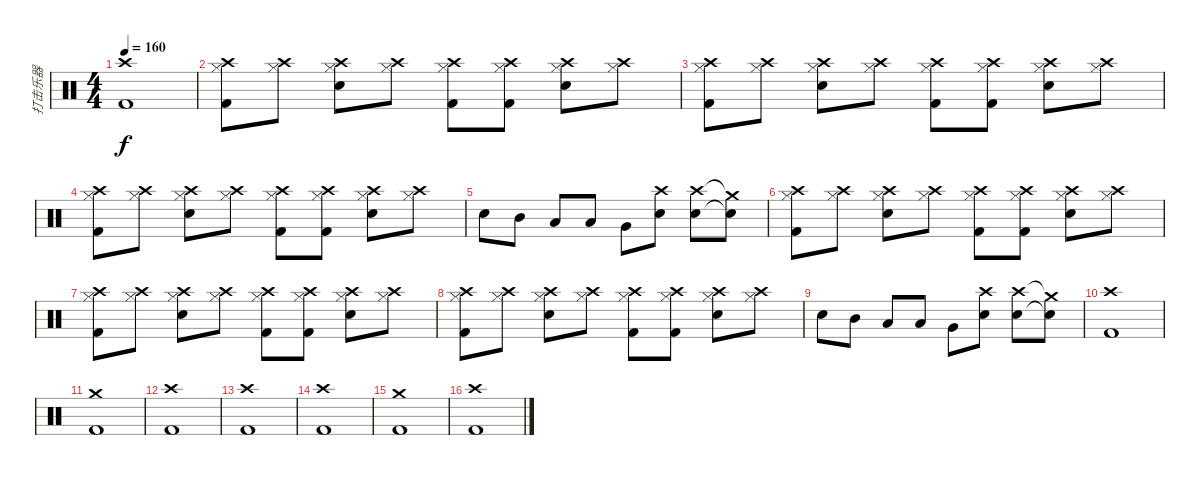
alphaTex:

\track ("打击乐器" "打击乐器") {instrument percussion}
\staff {score}
\articulation defaults
\ts (4 4)
\tempo 160
\clef neutral
\ks c
("Crash high (hit)" "Kick (hit) 2").1{dy f} |
("Crash high (hit)" "Hi-Hat (closed)" "Kick (hit) 2").8 ("Crash high (hit)" "Hi-Hat (closed)").8 ("Crash high (hit)" "Hi-Hat (closed)" "Electric Snare (hit)").8 ("Crash high (hit)" "Hi-Hat (closed)").8 ("Crash high (hit)" "Hi-Hat (closed)" "Kick (hit) 2").8 ("Crash high (hit)" "Hi-Hat (closed)" "Kick (hit) 2").8 ("Crash high (hit)" "Hi-Hat (closed)" "Electric Snare (hit)").8 ("Crash high (hit)" "Hi-Hat (closed)").8 |
("Crash high (hit)" "Hi-Hat (closed)" "Kick (hit) 2").8 ("Crash high (hit)" "Hi-Hat (closed)").8 ("Crash high (hit)" "Hi-Hat (closed)" "Electric Snare (hit)").8 ("Crash high (hit)" "Hi-Hat (closed)").8 ("Crash high (hit)" "Hi-Hat (closed)" "Kick (hit) 2").8 ("Crash high (hit)" "Hi-Hat (closed)" "Kick (hit) 2").8 ("Crash high (hit)" "Hi-Hat (closed)" "Electric Snare (hit)").8 ("Crash high (hit)" "Hi-Hat (closed)").8 |
("Crash high (hit)" "Hi-Hat (closed)" "Kick (hit) 2").8 ("Crash high (hit)" "Hi-Hat (closed)").8 ("Crash high (hit)" "Hi-Hat (closed)" "Electric Snare (hit)").8 ("Crash high (hit)" "Hi-Hat (closed)").8 ("Crash high (hit)" "Hi-Hat (closed)" "Kick (hit) 2").8 ("Crash high (hit)" "Hi-Hat (closed)" "Kick (hit) 2").8 ("Crash high (hit)" "Hi-Hat (closed)" "Electric Snare (hit)").8 ("Crash high (hit)" "Hi-Hat (closed)").8 |
"Electric Snare (hit)".8 "Mid Tom (hit)".8 "Low Tom (hit)".8 "Low Tom (hit)".8 "Very Low Tom (hit)".8 ("Crash high (hit)" "Electric Snare (hit)").8 ("Crash high (hit)" "Electric Snare (hit)").8 ("Crash medium (hit)"{t} "Electric Snare (hit)"{t}).8 |
("Crash high (hit)" "Hi-Hat (closed)" "Kick (hit) 2").8 ("Crash high (hit)" "Hi-Hat (closed)").8 ("Crash high (hit)" "Hi-Hat (closed)" "Electric Snare (hit)").8 ("Crash high (hit)" "Hi-Hat (closed)").8 ("Crash high (hit)" "Hi-Hat (closed)" "Kick (hit) 2").8 ("Crash high (hit)" "Hi-Hat (closed)" "Kick (hit) 2").8 ("Crash high (hit)" "Hi-Hat (closed)" "Electric Snare (hit)").8 ("Crash high (hit)" "Hi-Hat (closed)").8 |
("Crash high (hit)" "Hi-Hat (closed)" "Kick (hit) 2").8 ("Crash high (hit)" "Hi-Hat (closed)").8 ("Crash high (hit)" "Hi-Hat (closed)" "Electric Snare (hit)").8 ("Crash high (hit)" "Hi-Hat (closed)").8 ("Crash high (hit)" "Hi-Hat (closed)" "Kick (hit) 2").8 ("Crash high (hit)" "Hi-Hat (closed)" "Kick (hit) 2").8 ("Crash high (hit)" "Hi-Hat (closed)" "Electric Snare (hit)").8 ("Crash high (hit)" "Hi-Hat (closed)").8 |
("Crash high (hit)" "Hi-Hat (closed)" "Kick (hit) 2").8 ("Crash high (hit)" "Hi-Hat (closed)").8 ("Crash high (hit)" "Hi-Hat (closed)" "Electric Snare (hit)").8 ("Crash high (hit)" "Hi-Hat (closed)").8 ("Crash high (hit)" "Hi-Hat (closed)" "Kick (hit) 2").8 ("Crash high (hit)" "Hi-Hat (closed)" "Kick (hit) 2").8 ("Crash high (hit)" "Hi-Hat (closed)" "Electric Snare (hit)").8 ("Crash high (hit)" "Hi-Hat (closed)").8 |
"Electric Snare (hit)".8 "Mid Tom (hit)".8 "Low Tom (hit)".8 "Low Tom (hit)".8 "Very Low Tom (hit)".8 ("Crash high (hit)" "Electric Snare (hit)").8 ("Crash high (hit)" "Electric Snare (hit)").8 ("Crash medium (hit)"{t} "Electric Snare (hit)"{t}).8 |
("Crash high (hit)" "Kick (hit) 2").1 |
("Crash medium (hit)" "Kick (hit) 2").1 |
("Crash high (hit)" "Kick (hit) 2").1 |
("Crash high (hit)" "Kick (hit) 2").1 |
("Crash high (hit)" "Kick (hit) 2").1 |
("Crash medium (hit)" "Kick (hit) 2").1 |
("Crash high (hit)" "Kick (hit) 2").1
